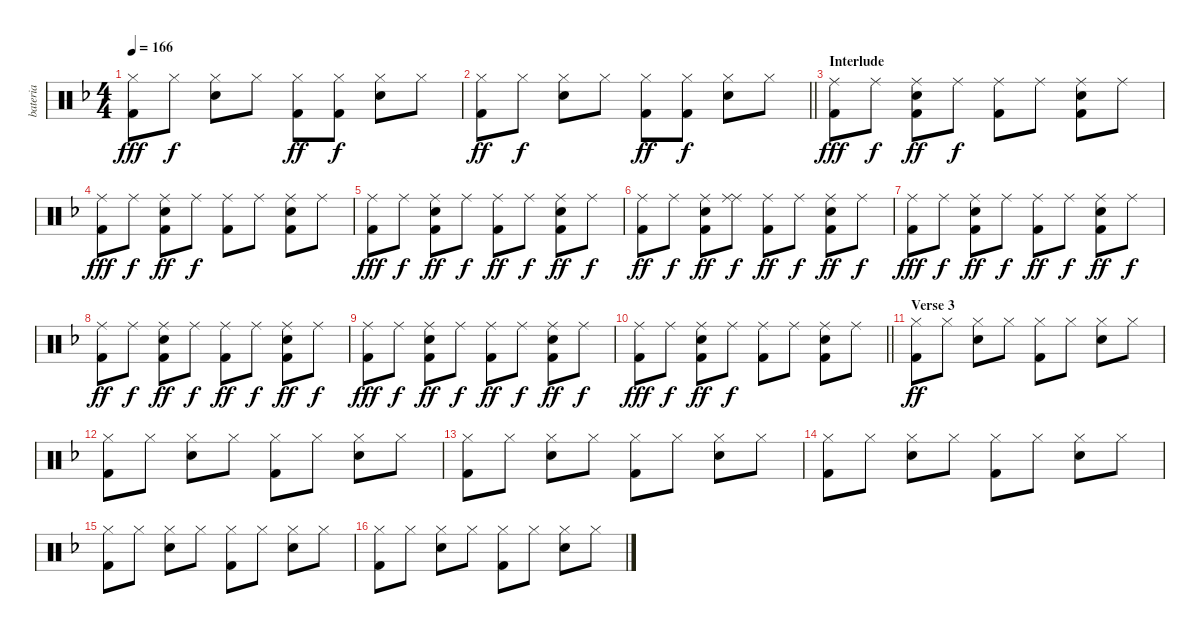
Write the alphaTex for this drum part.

\track ("bateria" "bateria") {instrument percussion}
\staff {score}
\articulation defaults
\ts (4 4)
\tempo 166
\clef neutral
\ks f
("Hi-Hat (closed)" "Kick (hit) 2").8{dy fff} "Hi-Hat (closed)".8{dy f} ("Hi-Hat (closed)" "Electric Snare (hit)").8 "Hi-Hat (closed)".8 ("Hi-Hat (closed)" "Kick (hit) 2").8{dy ff} ("Kick (hit) 2" "Hi-Hat (closed)").8{dy f} ("Hi-Hat (closed)" "Electric Snare (hit)").8 "Hi-Hat (closed)".8 |
\barLineRight lightlight
("Hi-Hat (closed)" "Kick (hit) 2").8{dy ff} "Hi-Hat (closed)".8{dy f} ("Hi-Hat (closed)" "Electric Snare (hit)").8 "Hi-Hat (closed)".8 ("Hi-Hat (closed)" "Kick (hit) 2").8{dy ff} ("Hi-Hat (closed)" "Kick (hit) 2").8{dy f} ("Hi-Hat (closed)" "Electric Snare (hit)").8 "Hi-Hat (closed)".8 |
\section ("" "Interlude")
("Ride (middle)" "Kick (hit) 2").8{dy fff} "Ride (middle)".8{dy f} ("Ride (middle)" "Kick (hit) 2" "Electric Snare (hit)").8{dy ff} "Ride (middle)".8{dy f} ("Ride (middle)" "Kick (hit) 2").8 "Ride (middle)".8 ("Ride (middle)" "Kick (hit) 2" "Electric Snare (hit)").8 "Ride (middle)".8 |
("Ride (middle)" "Kick (hit) 2").8{dy fff} "Ride (middle)".8{dy f} ("Ride (middle)" "Kick (hit) 2" "Electric Snare (hit)").8{dy ff} "Ride (middle)".8{dy f} ("Ride (middle)" "Kick (hit) 2").8 "Ride (middle)".8 ("Ride (middle)" "Kick (hit) 2" "Electric Snare (hit)").8 "Ride (middle)".8 |
("Ride (middle)" "Kick (hit) 2").8{dy fff} "Ride (middle)".8{dy f} ("Ride (middle)" "Kick (hit) 2" "Electric Snare (hit)").8{dy ff} "Ride (middle)".8{dy f} ("Ride (middle)" "Kick (hit) 2").8{dy ff} "Ride (middle)".8{dy f} ("Ride (middle)" "Kick (hit) 2" "Electric Snare (hit)").8{dy ff} "Ride (middle)".8{dy f} |
("Ride (middle)" "Kick (hit) 2").8{dy ff} "Ride (middle)".8{dy f} ("Ride (middle)" "Kick (hit) 2" "Electric Snare (hit)").8{dy ff} ("Ride (middle)" "Ride (middle)").8{dy f} ("Ride (middle)" "Kick (hit) 2").8{dy ff} "Ride (middle)".8{dy f} ("Ride (middle)" "Kick (hit) 2" "Electric Snare (hit)").8{dy ff} "Ride (middle)".8{dy f} |
("Ride (middle)" "Kick (hit) 2").8{dy fff} "Ride (middle)".8{dy f} ("Ride (middle)" "Kick (hit) 2" "Electric Snare (hit)").8{dy ff} "Ride (middle)".8{dy f} ("Ride (middle)" "Kick (hit) 2").8{dy ff} "Ride (middle)".8{dy f} ("Ride (middle)" "Kick (hit) 2" "Electric Snare (hit)").8{dy ff} "Ride (middle)".8{dy f} |
("Ride (middle)" "Kick (hit) 2").8{dy ff} "Ride (middle)".8{dy f} ("Ride (middle)" "Kick (hit) 2" "Electric Snare (hit)").8{dy ff} "Ride (middle)".8{dy f} ("Ride (middle)" "Kick (hit) 2").8{dy ff} "Ride (middle)".8{dy f} ("Ride (middle)" "Kick (hit) 2" "Electric Snare (hit)").8{dy ff} "Ride (middle)".8{dy f} |
("Ride (middle)" "Kick (hit) 2").8{dy fff} "Ride (middle)".8{dy f} ("Ride (middle)" "Kick (hit) 2" "Electric Snare (hit)").8{dy ff} "Ride (middle)".8{dy f} ("Ride (middle)" "Kick (hit) 2").8{dy ff} "Ride (middle)".8{dy f} ("Ride (middle)" "Kick (hit) 2" "Electric Snare (hit)").8{dy ff} "Ride (middle)".8{dy f} |
\barLineRight lightlight
("Ride (middle)" "Kick (hit) 2").8{dy fff} "Ride (middle)".8{dy f} ("Ride (middle)" "Kick (hit) 2" "Electric Snare (hit)").8{dy ff} "Ride (middle)".8{dy f} ("Ride (middle)" "Kick (hit) 2").8 "Ride (middle)".8 ("Ride (middle)" "Kick (hit) 2" "Electric Snare (hit)").8 "Ride (middle)".8 |
\section ("" "Verse 3")
("Hi-Hat (closed)" "Kick (hit) 2").8{dy ff} "Hi-Hat (closed)".8 ("Hi-Hat (closed)" "Electric Snare (hit)").8 "Hi-Hat (closed)".8 ("Hi-Hat (closed)" "Kick (hit) 2").8 "Hi-Hat (closed)".8 ("Hi-Hat (closed)" "Electric Snare (hit)").8 "Hi-Hat (closed)".8 |
("Hi-Hat (closed)" "Kick (hit) 2").8 "Hi-Hat (closed)".8 ("Hi-Hat (closed)" "Electric Snare (hit)").8 "Hi-Hat (closed)".8 ("Hi-Hat (closed)" "Kick (hit) 2").8 "Hi-Hat (closed)".8 ("Hi-Hat (closed)" "Electric Snare (hit)").8 "Hi-Hat (closed)".8 |
("Hi-Hat (closed)" "Kick (hit) 2").8 "Hi-Hat (closed)".8 ("Hi-Hat (closed)" "Electric Snare (hit)").8 "Hi-Hat (closed)".8 ("Hi-Hat (closed)" "Kick (hit) 2").8 "Hi-Hat (closed)".8 ("Hi-Hat (closed)" "Electric Snare (hit)").8 "Hi-Hat (closed)".8 |
("Hi-Hat (closed)" "Kick (hit) 2").8 "Hi-Hat (closed)".8 ("Hi-Hat (closed)" "Electric Snare (hit)").8 "Hi-Hat (closed)".8 ("Hi-Hat (closed)" "Kick (hit) 2").8 "Hi-Hat (closed)".8 ("Hi-Hat (closed)" "Electric Snare (hit)").8 "Hi-Hat (closed)".8 |
("Hi-Hat (closed)" "Kick (hit) 2").8 "Hi-Hat (closed)".8 ("Hi-Hat (closed)" "Electric Snare (hit)").8 "Hi-Hat (closed)".8 ("Hi-Hat (closed)" "Kick (hit) 2").8 "Hi-Hat (closed)".8 ("Hi-Hat (closed)" "Electric Snare (hit)").8 "Hi-Hat (closed)".8 |
("Hi-Hat (closed)" "Kick (hit) 2").8 "Hi-Hat (closed)".8 ("Hi-Hat (closed)" "Electric Snare (hit)").8 "Hi-Hat (closed)".8 ("Hi-Hat (closed)" "Kick (hit) 2").8 "Hi-Hat (closed)".8 ("Hi-Hat (closed)" "Electric Snare (hit)").8 "Hi-Hat (closed)".8
